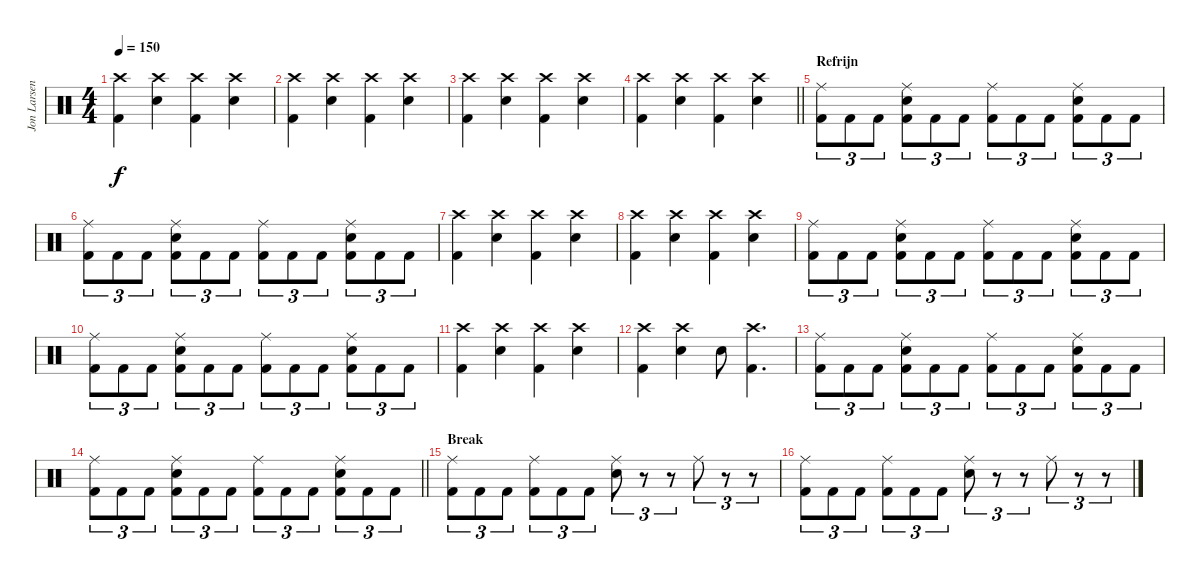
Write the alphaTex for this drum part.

\track ("Jon Larsen" "Jon Larsen") {instrument percussion}
\staff {score}
\articulation defaults
\ts (4 4)
\tempo 150
\clef neutral
\ks c
("Kick (hit) 2" "Crash high (hit)").4{dy f} ("Snare (hit) 2" "Crash high (hit)").4 ("Kick (hit) 2" "Crash high (hit)").4 ("Snare (hit) 2" "Crash high (hit)").4 |
("Kick (hit) 2" "Crash high (hit)").4 ("Snare (hit) 2" "Crash high (hit)").4 ("Kick (hit) 2" "Crash high (hit)").4 ("Snare (hit) 2" "Crash high (hit)").4 |
("Kick (hit) 2" "Crash high (hit)").4 ("Snare (hit) 2" "Crash high (hit)").4 ("Kick (hit) 2" "Crash high (hit)").4 ("Snare (hit) 2" "Crash high (hit)").4 |
\barLineRight lightlight
("Kick (hit) 2" "Crash high (hit)").4 ("Snare (hit) 2" "Crash high (hit)").4 ("Kick (hit) 2" "Crash high (hit)").4 ("Snare (hit) 2" "Crash high (hit)").4 |
\section ("" "Refrijn")
("Ride (middle)" "Kick (hit) 2").8{tu (3 2)} "Kick (hit) 2".8{tu (3 2)} "Kick (hit) 2".8{tu (3 2)} ("Snare (hit) 2" "Ride (middle)" "Kick (hit) 2").8{tu (3 2)} "Kick (hit) 2".8{tu (3 2)} "Kick (hit) 2".8{tu (3 2)} ("Ride (middle)" "Kick (hit) 2").8{tu (3 2)} "Kick (hit) 2".8{tu (3 2)} "Kick (hit) 2".8{tu (3 2)} ("Snare (hit) 2" "Ride (middle)" "Kick (hit) 2").8{tu (3 2)} "Kick (hit) 2".8{tu (3 2)} "Kick (hit) 2".8{tu (3 2)} |
("Ride (middle)" "Kick (hit) 2").8{tu (3 2)} "Kick (hit) 2".8{tu (3 2)} "Kick (hit) 2".8{tu (3 2)} ("Snare (hit) 2" "Ride (middle)" "Kick (hit) 2").8{tu (3 2)} "Kick (hit) 2".8{tu (3 2)} "Kick (hit) 2".8{tu (3 2)} ("Ride (middle)" "Kick (hit) 2").8{tu (3 2)} "Kick (hit) 2".8{tu (3 2)} "Kick (hit) 2".8{tu (3 2)} ("Snare (hit) 2" "Ride (middle)" "Kick (hit) 2").8{tu (3 2)} "Kick (hit) 2".8{tu (3 2)} "Kick (hit) 2".8{tu (3 2)} |
("Kick (hit) 2" "Crash high (hit)").4 ("Snare (hit) 2" "Crash high (hit)").4 ("Kick (hit) 2" "Crash high (hit)").4 ("Snare (hit) 2" "Crash high (hit)").4 |
("Kick (hit) 2" "Crash high (hit)").4 ("Snare (hit) 2" "Crash high (hit)").4 ("Kick (hit) 2" "Crash high (hit)").4 ("Snare (hit) 2" "Crash high (hit)").4 |
("Ride (middle)" "Kick (hit) 2").8{tu (3 2)} "Kick (hit) 2".8{tu (3 2)} "Kick (hit) 2".8{tu (3 2)} ("Snare (hit) 2" "Ride (middle)" "Kick (hit) 2").8{tu (3 2)} "Kick (hit) 2".8{tu (3 2)} "Kick (hit) 2".8{tu (3 2)} ("Ride (middle)" "Kick (hit) 2").8{tu (3 2)} "Kick (hit) 2".8{tu (3 2)} "Kick (hit) 2".8{tu (3 2)} ("Snare (hit) 2" "Ride (middle)" "Kick (hit) 2").8{tu (3 2)} "Kick (hit) 2".8{tu (3 2)} "Kick (hit) 2".8{tu (3 2)} |
("Ride (middle)" "Kick (hit) 2").8{tu (3 2)} "Kick (hit) 2".8{tu (3 2)} "Kick (hit) 2".8{tu (3 2)} ("Snare (hit) 2" "Ride (middle)" "Kick (hit) 2").8{tu (3 2)} "Kick (hit) 2".8{tu (3 2)} "Kick (hit) 2".8{tu (3 2)} ("Ride (middle)" "Kick (hit) 2").8{tu (3 2)} "Kick (hit) 2".8{tu (3 2)} "Kick (hit) 2".8{tu (3 2)} ("Snare (hit) 2" "Ride (middle)" "Kick (hit) 2").8{tu (3 2)} "Kick (hit) 2".8{tu (3 2)} "Kick (hit) 2".8{tu (3 2)} |
("Kick (hit) 2" "Crash high (hit)").4 ("Snare (hit) 2" "Crash high (hit)").4 ("Kick (hit) 2" "Crash high (hit)").4 ("Snare (hit) 2" "Crash high (hit)").4 |
("Kick (hit) 2" "Crash high (hit)").4 ("Snare (hit) 2" "Crash high (hit)").4 "Snare (hit) 2".8 ("Crash high (hit)" "Kick (hit) 2").4{d} |
("Ride (middle)" "Kick (hit) 2").8{tu (3 2)} "Kick (hit) 2".8{tu (3 2)} "Kick (hit) 2".8{tu (3 2)} ("Snare (hit) 2" "Ride (middle)" "Kick (hit) 2").8{tu (3 2)} "Kick (hit) 2".8{tu (3 2)} "Kick (hit) 2".8{tu (3 2)} ("Ride (middle)" "Kick (hit) 2").8{tu (3 2)} "Kick (hit) 2".8{tu (3 2)} "Kick (hit) 2".8{tu (3 2)} ("Snare (hit) 2" "Ride (middle)" "Kick (hit) 2").8{tu (3 2)} "Kick (hit) 2".8{tu (3 2)} "Kick (hit) 2".8{tu (3 2)} |
\barLineRight lightlight
("Ride (middle)" "Kick (hit) 2").8{tu (3 2)} "Kick (hit) 2".8{tu (3 2)} "Kick (hit) 2".8{tu (3 2)} ("Snare (hit) 2" "Ride (middle)" "Kick (hit) 2").8{tu (3 2)} "Kick (hit) 2".8{tu (3 2)} "Kick (hit) 2".8{tu (3 2)} ("Ride (middle)" "Kick (hit) 2").8{tu (3 2)} "Kick (hit) 2".8{tu (3 2)} "Kick (hit) 2".8{tu (3 2)} ("Snare (hit) 2" "Ride (middle)" "Kick (hit) 2").8{tu (3 2)} "Kick (hit) 2".8{tu (3 2)} "Kick (hit) 2".8{tu (3 2)} |
\section ("" "Break")
("Ride (middle)" "Kick (hit) 2").8{tu (3 2)} "Kick (hit) 2".8{tu (3 2)} "Kick (hit) 2".8{tu (3 2)} ("Ride (middle)" "Kick (hit) 2").8{tu (3 2)} "Kick (hit) 2".8{tu (3 2)} "Kick (hit) 2".8{tu (3 2)} ("Snare (hit) 2" "Ride (middle)").8{tu (3 2)} r.8{tu (3 2)} r.8{tu (3 2)} "Ride (middle)".8{tu (3 2)} r.8{tu (3 2)} r.8{tu (3 2)} |
("Ride (middle)" "Kick (hit) 2").8{tu (3 2)} "Kick (hit) 2".8{tu (3 2)} "Kick (hit) 2".8{tu (3 2)} ("Ride (middle)" "Kick (hit) 2").8{tu (3 2)} "Kick (hit) 2".8{tu (3 2)} "Kick (hit) 2".8{tu (3 2)} ("Snare (hit) 2" "Ride (middle)").8{tu (3 2)} r.8{tu (3 2)} r.8{tu (3 2)} "Ride (middle)".8{tu (3 2)} r.8{tu (3 2)} r.8{tu (3 2)}
